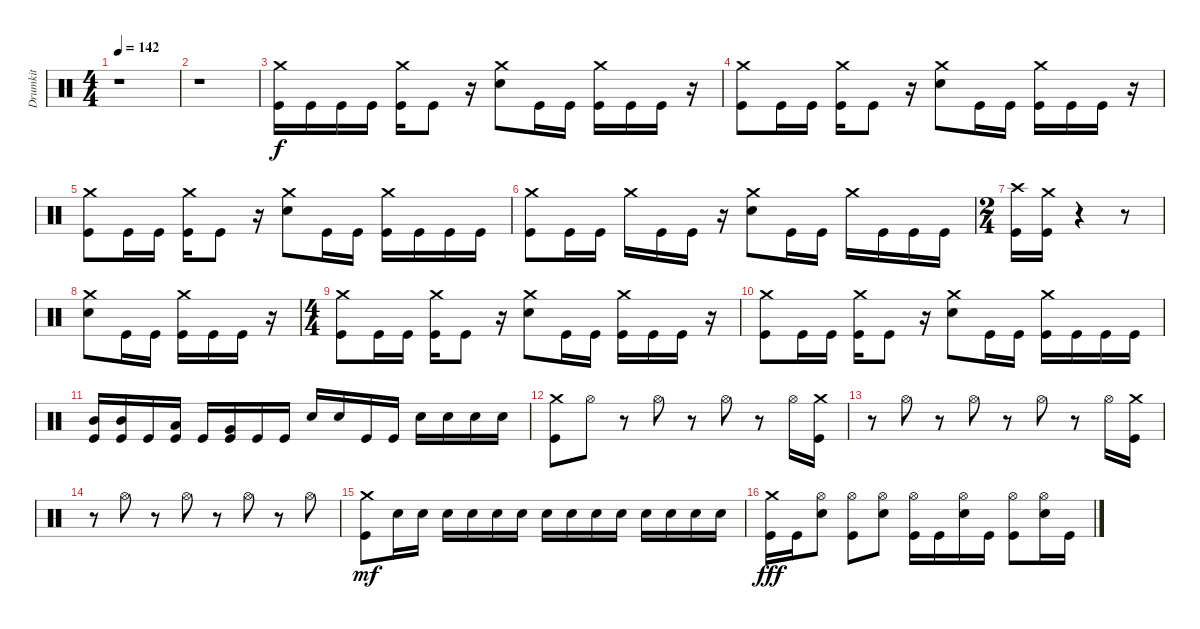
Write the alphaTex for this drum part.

\track ("Drumkit" "Drumkit") {instrument percussion}
\staff {score}
\articulation defaults
\ts (4 4)
\tempo 142
\clef neutral
\ks c
r.1{dy f} |
r.1 |
("Kick (hit)" "Crash medium (hit)").16 "Kick (hit)".16 "Kick (hit)".16 "Kick (hit)".16 ("Kick (hit)" "Crash medium (hit)").16 "Kick (hit)".8 r.16 ("Snare (hit) 2" "Crash medium (hit)").8 "Kick (hit)".16 "Kick (hit)".16 ("Kick (hit)" "Crash medium (hit)").16 "Kick (hit)".16 "Kick (hit)".16 r.16 |
("Crash medium (hit)" "Kick (hit)").8 "Kick (hit)".16 "Kick (hit)".16 ("Kick (hit)" "Crash medium (hit)").16 "Kick (hit)".8 r.16 ("Snare (hit) 2" "Crash medium (hit)").8 "Kick (hit)".16 "Kick (hit)".16 ("Kick (hit)" "Crash medium (hit)").16 "Kick (hit)".16 "Kick (hit)".16 r.16 |
("Crash medium (hit)" "Kick (hit)").8 "Kick (hit)".16 "Kick (hit)".16 ("Kick (hit)" "Crash medium (hit)").16 "Kick (hit)".8 r.16 ("Snare (hit) 2" "Crash medium (hit)").8 "Kick (hit)".16 "Kick (hit)".16 ("Kick (hit)" "Crash medium (hit)").16 "Kick (hit)".16 "Kick (hit)".16 "Kick (hit)".16 |
("Crash medium (hit)" "Kick (hit)").8 "Kick (hit)".16 "Kick (hit)".16 "Crash medium (hit)".16 "Kick (hit)".16 "Kick (hit)".16 r.16 ("Snare (hit) 2" "Crash medium (hit)").8 "Kick (hit)".16 "Kick (hit)".16 "Crash medium (hit)".16 "Kick (hit)".16 "Kick (hit)".16 "Kick (hit)".16 |
\ts (2 4)
("Kick (hit)" "Crash high (hit)").16 ("Kick (hit)" "Crash medium (hit)").16 r.4 r.8 |
("Snare (hit) 2" "Crash medium (hit)").8 "Kick (hit)".16 "Kick (hit)".16 ("Kick (hit)" "Crash medium (hit)").16 "Kick (hit)".16 "Kick (hit)".16 r.16 |
\ts (4 4)
("Crash medium (hit)" "Kick (hit)").8 "Kick (hit)".16 "Kick (hit)".16 ("Kick (hit)" "Crash medium (hit)").16 "Kick (hit)".8 r.16 ("Snare (hit) 2" "Crash medium (hit)").8 "Kick (hit)".16 "Kick (hit)".16 ("Kick (hit)" "Crash medium (hit)").16 "Kick (hit)".16 "Kick (hit)".16 r.16 |
("Crash medium (hit)" "Kick (hit)").8 "Kick (hit)".16 "Kick (hit)".16 ("Kick (hit)" "Crash medium (hit)").16 "Kick (hit)".8 r.16 ("Snare (hit) 2" "Crash medium (hit)").8 "Kick (hit)".16 "Kick (hit)".16 ("Kick (hit)" "Crash medium (hit)").16 "Kick (hit)".16 "Kick (hit)".16 "Kick (hit)".16 |
("Kick (hit)" "Mid Tom (hit)").16 ("Kick (hit)" "Mid Tom (hit)").16 "Kick (hit)".16 ("Kick (hit)" "Low Tom (hit)").16 "Kick (hit)".16 ("Kick (hit)" "Very Low Tom (hit)").16 "Kick (hit)".16 "Kick (hit)".16 "Snare (hit) 2".16 "Snare (hit) 2".16 "Kick (hit)".16 "Kick (hit)".16 "Snare (hit) 2".16 "Snare (hit) 2".16 "Snare (hit) 2".16 "Snare (hit) 2".16 |
("Kick (hit)" "Crash medium (hit)").8 "Hi-Hat (open)".8 r.8 "Hi-Hat (open)".8 r.8 "Hi-Hat (open)".8 r.8 "Hi-Hat (open)".16 ("Kick (hit)" "Crash medium (hit)").16 |
r.8 "Hi-Hat (open)".8 r.8 "Hi-Hat (open)".8 r.8 "Hi-Hat (open)".8 r.8 "Hi-Hat (open)".16 ("Kick (hit)" "Crash medium (hit)").16 |
r.8 "Hi-Hat (open)".8 r.8 "Hi-Hat (open)".8 r.8 "Hi-Hat (open)".8 r.8 "Hi-Hat (open)".8 |
("Kick (hit)" "Crash medium (hit)").8{dy mf} "Snare (hit) 2".16 "Snare (hit) 2".16 "Snare (hit) 2".16 "Snare (hit) 2".16 "Snare (hit) 2".16 "Snare (hit) 2".16 "Snare (hit) 2".16 "Snare (hit) 2".16 "Snare (hit) 2".16 "Snare (hit) 2".16 "Snare (hit) 2".16 "Snare (hit) 2".16 "Snare (hit) 2".16 "Snare (hit) 2".16 |
("Kick (hit)" "Crash medium (hit)").16{dy fff} "Kick (hit)".16 ("Hi-Hat (open)" "Snare (hit) 2").8 ("Hi-Hat (open)" "Kick (hit)").8 ("Hi-Hat (open)" "Snare (hit) 2").8 ("Kick (hit)" "Hi-Hat (open)").16 "Kick (hit)".16 ("Hi-Hat (open)" "Snare (hit) 2").16 "Kick (hit)".16 ("Hi-Hat (open)" "Kick (hit)").8 ("Snare (hit) 2" "Hi-Hat (open)").16 "Kick (hit)".16
